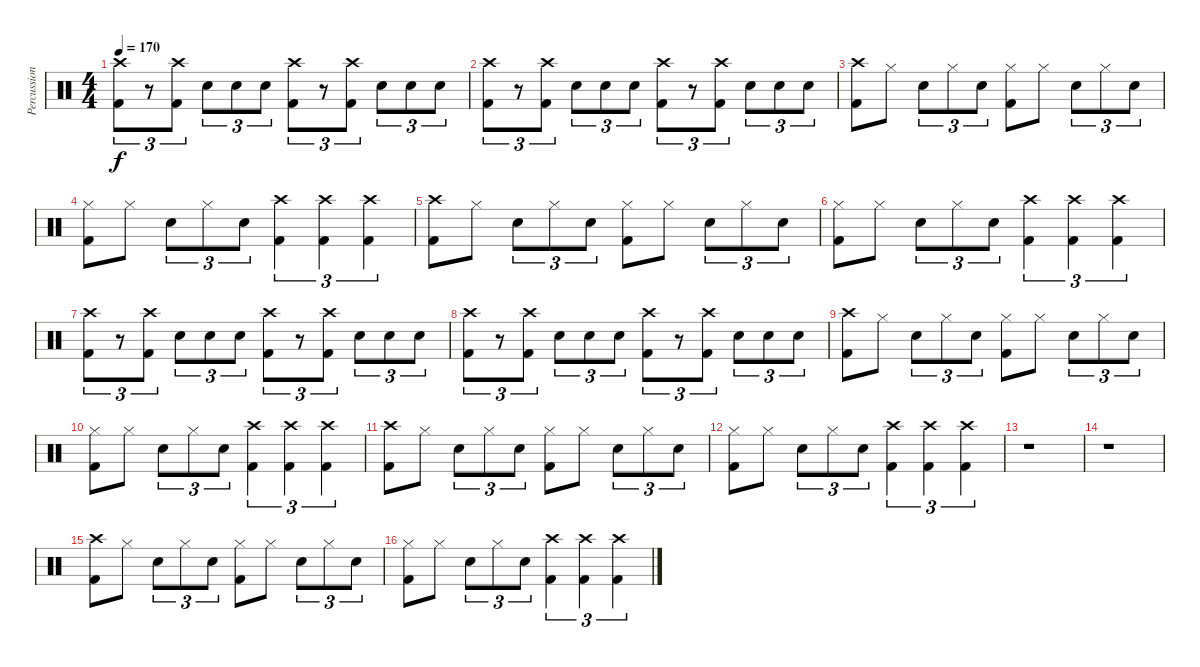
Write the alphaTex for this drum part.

\track ("Percussion" "Percussion") {instrument percussion}
\staff {score}
\articulation defaults
\ts (4 4)
\tempo 170
\clef neutral
\ks c
("Crash high (hit)" "Kick (hit) 2").8{tu (3 2) dy f} r.8{tu (3 2)} ("Crash high (hit)" "Kick (hit) 2").8{tu (3 2)} "Snare (hit) 2".8{tu (3 2)} "Snare (hit) 2".8{tu (3 2)} "Snare (hit) 2".8{tu (3 2)} ("Crash high (hit)" "Kick (hit) 2").8{tu (3 2)} r.8{tu (3 2)} ("Crash high (hit)" "Kick (hit) 2").8{tu (3 2)} "Snare (hit) 2".8{tu (3 2)} "Snare (hit) 2".8{tu (3 2)} "Snare (hit) 2".8{tu (3 2)} |
("Crash high (hit)" "Kick (hit) 2").8{tu (3 2)} r.8{tu (3 2)} ("Crash high (hit)" "Kick (hit) 2").8{tu (3 2)} "Snare (hit) 2".8{tu (3 2)} "Snare (hit) 2".8{tu (3 2)} "Snare (hit) 2".8{tu (3 2)} ("Crash high (hit)" "Kick (hit) 2").8{tu (3 2)} r.8{tu (3 2)} ("Crash high (hit)" "Kick (hit) 2").8{tu (3 2)} "Snare (hit) 2".8{tu (3 2)} "Snare (hit) 2".8{tu (3 2)} "Snare (hit) 2".8{tu (3 2)} |
("Crash high (hit)" "Kick (hit) 2").8 "Hi-Hat (closed)".8 "Snare (hit) 2".8{tu (3 2)} "Hi-Hat (closed)".8{tu (3 2)} "Snare (hit) 2".8{tu (3 2)} ("Hi-Hat (closed)" "Kick (hit) 2").8 "Hi-Hat (closed)".8 "Snare (hit) 2".8{tu (3 2)} "Hi-Hat (closed)".8{tu (3 2)} "Snare (hit) 2".8{tu (3 2)} |
("Hi-Hat (closed)" "Kick (hit) 2").8 "Hi-Hat (closed)".8 "Snare (hit) 2".8{tu (3 2)} "Hi-Hat (closed)".8{tu (3 2)} "Snare (hit) 2".8{tu (3 2)} ("Crash high (hit)" "Kick (hit) 2").4{tu (3 2)} ("Crash high (hit)" "Kick (hit) 2").4{tu (3 2)} ("Crash high (hit)" "Kick (hit) 2").4{tu (3 2)} |
("Crash high (hit)" "Kick (hit) 2").8 "Hi-Hat (closed)".8 "Snare (hit) 2".8{tu (3 2)} "Hi-Hat (closed)".8{tu (3 2)} "Snare (hit) 2".8{tu (3 2)} ("Hi-Hat (closed)" "Kick (hit) 2").8 "Hi-Hat (closed)".8 "Snare (hit) 2".8{tu (3 2)} "Hi-Hat (closed)".8{tu (3 2)} "Snare (hit) 2".8{tu (3 2)} |
("Hi-Hat (closed)" "Kick (hit) 2").8 "Hi-Hat (closed)".8 "Snare (hit) 2".8{tu (3 2)} "Hi-Hat (closed)".8{tu (3 2)} "Snare (hit) 2".8{tu (3 2)} ("Crash high (hit)" "Kick (hit) 2").4{tu (3 2)} ("Crash high (hit)" "Kick (hit) 2").4{tu (3 2)} ("Crash high (hit)" "Kick (hit) 2").4{tu (3 2)} |
("Crash high (hit)" "Kick (hit) 2").8{tu (3 2)} r.8{tu (3 2)} ("Crash high (hit)" "Kick (hit) 2").8{tu (3 2)} "Snare (hit) 2".8{tu (3 2)} "Snare (hit) 2".8{tu (3 2)} "Snare (hit) 2".8{tu (3 2)} ("Crash high (hit)" "Kick (hit) 2").8{tu (3 2)} r.8{tu (3 2)} ("Crash high (hit)" "Kick (hit) 2").8{tu (3 2)} "Snare (hit) 2".8{tu (3 2)} "Snare (hit) 2".8{tu (3 2)} "Snare (hit) 2".8{tu (3 2)} |
("Crash high (hit)" "Kick (hit) 2").8{tu (3 2)} r.8{tu (3 2)} ("Crash high (hit)" "Kick (hit) 2").8{tu (3 2)} "Snare (hit) 2".8{tu (3 2)} "Snare (hit) 2".8{tu (3 2)} "Snare (hit) 2".8{tu (3 2)} ("Crash high (hit)" "Kick (hit) 2").8{tu (3 2)} r.8{tu (3 2)} ("Crash high (hit)" "Kick (hit) 2").8{tu (3 2)} "Snare (hit) 2".8{tu (3 2)} "Snare (hit) 2".8{tu (3 2)} "Snare (hit) 2".8{tu (3 2)} |
("Crash high (hit)" "Kick (hit) 2").8 "Hi-Hat (closed)".8 "Snare (hit) 2".8{tu (3 2)} "Hi-Hat (closed)".8{tu (3 2)} "Snare (hit) 2".8{tu (3 2)} ("Hi-Hat (closed)" "Kick (hit) 2").8 "Hi-Hat (closed)".8 "Snare (hit) 2".8{tu (3 2)} "Hi-Hat (closed)".8{tu (3 2)} "Snare (hit) 2".8{tu (3 2)} |
("Hi-Hat (closed)" "Kick (hit) 2").8 "Hi-Hat (closed)".8 "Snare (hit) 2".8{tu (3 2)} "Hi-Hat (closed)".8{tu (3 2)} "Snare (hit) 2".8{tu (3 2)} ("Crash high (hit)" "Kick (hit) 2").4{tu (3 2)} ("Crash high (hit)" "Kick (hit) 2").4{tu (3 2)} ("Crash high (hit)" "Kick (hit) 2").4{tu (3 2)} |
("Crash high (hit)" "Kick (hit) 2").8 "Hi-Hat (closed)".8 "Snare (hit) 2".8{tu (3 2)} "Hi-Hat (closed)".8{tu (3 2)} "Snare (hit) 2".8{tu (3 2)} ("Hi-Hat (closed)" "Kick (hit) 2").8 "Hi-Hat (closed)".8 "Snare (hit) 2".8{tu (3 2)} "Hi-Hat (closed)".8{tu (3 2)} "Snare (hit) 2".8{tu (3 2)} |
("Hi-Hat (closed)" "Kick (hit) 2").8 "Hi-Hat (closed)".8 "Snare (hit) 2".8{tu (3 2)} "Hi-Hat (closed)".8{tu (3 2)} "Snare (hit) 2".8{tu (3 2)} ("Crash high (hit)" "Kick (hit) 2").4{tu (3 2)} ("Crash high (hit)" "Kick (hit) 2").4{tu (3 2)} ("Crash high (hit)" "Kick (hit) 2").4{tu (3 2)} |
r.1 |
r.1 |
("Crash high (hit)" "Kick (hit) 2").8 "Hi-Hat (closed)".8 "Snare (hit) 2".8{tu (3 2)} "Hi-Hat (closed)".8{tu (3 2)} "Snare (hit) 2".8{tu (3 2)} ("Hi-Hat (closed)" "Kick (hit) 2").8 "Hi-Hat (closed)".8 "Snare (hit) 2".8{tu (3 2)} "Hi-Hat (closed)".8{tu (3 2)} "Snare (hit) 2".8{tu (3 2)} |
("Hi-Hat (closed)" "Kick (hit) 2").8 "Hi-Hat (closed)".8 "Snare (hit) 2".8{tu (3 2)} "Hi-Hat (closed)".8{tu (3 2)} "Snare (hit) 2".8{tu (3 2)} ("Crash high (hit)" "Kick (hit) 2").4{tu (3 2)} ("Crash high (hit)" "Kick (hit) 2").4{tu (3 2)} ("Crash high (hit)" "Kick (hit) 2").4{tu (3 2)}
